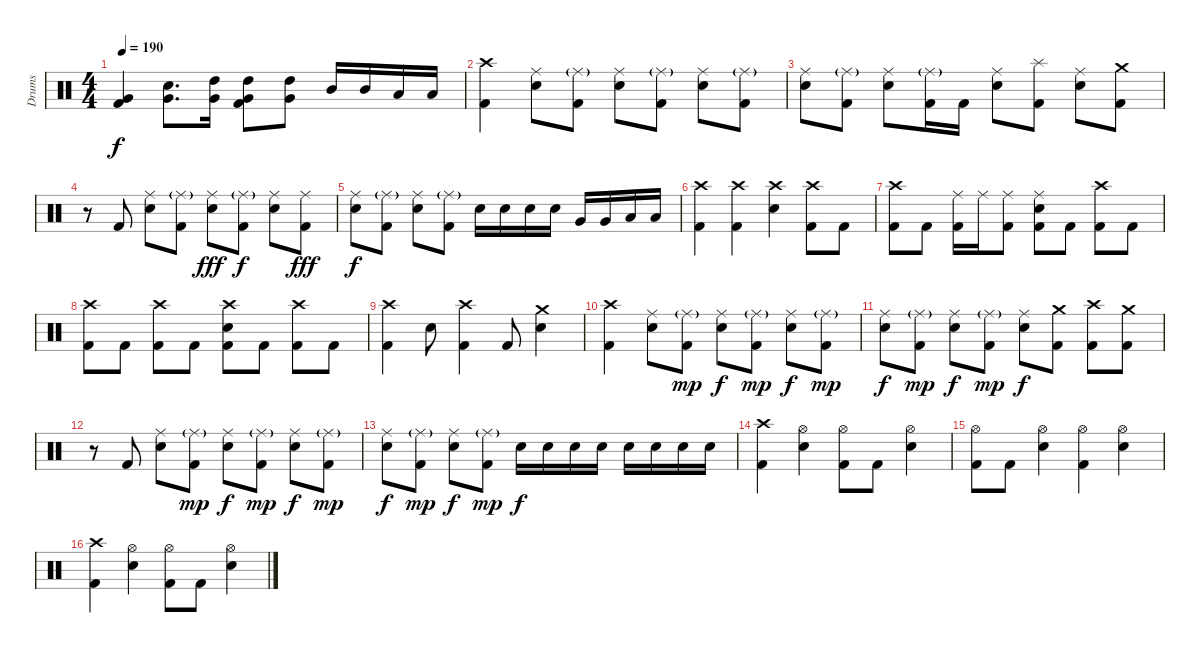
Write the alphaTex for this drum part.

\track ("Drums" "Drums") {instrument percussion}
\staff {score}
\articulation defaults
\ts (4 4)
\tempo 190
\clef neutral
\ks c
("Very Low Tom (hit)" "Kick (hit) 2").4{dy f} ("Electric Snare (hit)" "Very Low Tom (hit)").8{d} ("High Tom (hit)" "Very Low Tom (hit)").16 ("High Tom (hit)" "Very Low Tom (hit)" "Kick (hit) 2").8 ("High Tom (hit)" "Very Low Tom (hit)").8 "Mid Tom (hit)".16 "Mid Tom (hit)".16 "Low Tom (hit)".16 "Low Tom (hit)".16 |
("Crash high (hit)" "Kick (hit) 2").4 ("Ride (middle)" "Electric Snare (hit)").8 ("Ride (middle)"{g} "Kick (hit) 2").8 ("Ride (middle)" "Electric Snare (hit)").8 ("Ride (middle)"{g} "Kick (hit) 2").8 ("Ride (middle)" "Electric Snare (hit)").8 ("Ride (middle)"{g} "Kick (hit) 2").8 |
("Ride (middle)" "Electric Snare (hit)").8 ("Ride (middle)"{g} "Kick (hit) 2").8 ("Ride (middle)" "Electric Snare (hit)").8 ("Ride (middle)"{g} "Kick (hit) 2").16 "Kick (hit) 2".16 ("Ride (middle)" "Electric Snare (hit)").8 ("Splash (hit)" "Kick (hit) 2").8 ("Ride (middle)" "Electric Snare (hit)").8 ("Crash medium (hit)" "Kick (hit) 2").8 |
r.8 "Kick (hit) 2".8 ("Ride (middle)" "Electric Snare (hit)").8 ("Ride (middle)"{g} "Kick (hit) 2").8 ("Ride (middle)" "Electric Snare (hit)").8{dy fff} ("Ride (middle)"{g} "Kick (hit) 2").8{dy f} ("Ride (middle)" "Electric Snare (hit)").8 ("Ride (middle)" "Kick (hit) 2").8{dy fff} |
("Ride (middle)" "Electric Snare (hit)").8{dy f} ("Ride (middle)"{g} "Kick (hit) 2").8 ("Ride (middle)" "Electric Snare (hit)").8 ("Ride (middle)"{g} "Kick (hit) 2").8 "Electric Snare (hit)".16 "Electric Snare (hit)".16 "Electric Snare (hit)".16 "Electric Snare (hit)".16 "Very Low Tom (hit)".16 "Very Low Tom (hit)".16 "Low Floor Tom (hit)".16 "Low Floor Tom (hit)".16 |
("Crash high (hit)" "Kick (hit) 2").4 ("Crash high (hit)" "Kick (hit) 2").4 ("Crash high (hit)" "Electric Snare (hit)").4 ("Crash high (hit)" "Kick (hit) 2").8 "Kick (hit) 2".8 |
("Crash high (hit)" "Kick (hit) 2").8 "Kick (hit) 2".8 ("Ride (middle)" "Kick (hit) 2").16 "Ride (middle)".16 ("Ride (middle)" "Kick (hit) 2").8 ("Ride (middle)" "Electric Snare (hit)" "Kick (hit) 2").8 "Kick (hit) 2".8 ("Crash high (hit)" "Kick (hit) 2").8 "Kick (hit) 2".8 |
("Crash high (hit)" "Kick (hit) 2").8 "Kick (hit) 2".8 ("Crash high (hit)" "Kick (hit) 2").8 "Kick (hit) 2".8 ("Crash high (hit)" "Electric Snare (hit)" "Kick (hit) 2").8 "Kick (hit) 2".8 ("Crash high (hit)" "Kick (hit) 2").8 "Kick (hit) 2".8 |
("Crash high (hit)" "Kick (hit) 2").4 "Electric Snare (hit)".8 ("Crash high (hit)" "Kick (hit) 2").4 "Kick (hit) 2".8 ("Crash medium (hit)" "Electric Snare (hit)").4 |
("Crash high (hit)" "Kick (hit) 2").4 ("Ride (middle)" "Electric Snare (hit)").8 ("Ride (middle)"{g} "Kick (hit) 2").8{dy mp} ("Ride (middle)" "Electric Snare (hit)").8{dy f} ("Ride (middle)"{g} "Kick (hit) 2").8{dy mp} ("Ride (middle)" "Electric Snare (hit)").8{dy f} ("Ride (middle)"{g} "Kick (hit) 2").8{dy mp} |
("Ride (middle)" "Electric Snare (hit)").8{dy f} ("Ride (middle)"{g} "Kick (hit) 2").8{dy mp} ("Ride (middle)" "Electric Snare (hit)").8{dy f} ("Ride (middle)"{g} "Kick (hit) 2").8{dy mp} ("Ride (middle)" "Electric Snare (hit)").8{dy f} ("Crash medium (hit)" "Kick (hit) 2").8 ("Crash high (hit)" "Kick (hit) 2").8 ("Crash medium (hit)" "Kick (hit) 2").8 |
r.8 "Kick (hit) 2".8 ("Ride (middle)" "Electric Snare (hit)").8 ("Ride (middle)"{g} "Kick (hit) 2").8{dy mp} ("Ride (middle)" "Electric Snare (hit)").8{dy f} ("Ride (middle)"{g} "Kick (hit) 2").8{dy mp} ("Ride (middle)" "Electric Snare (hit)").8{dy f} ("Ride (middle)"{g} "Kick (hit) 2").8{dy mp} |
("Ride (middle)" "Electric Snare (hit)").8{dy f} ("Ride (middle)"{g} "Kick (hit) 2").8{dy mp} ("Ride (middle)" "Electric Snare (hit)").8{dy f} ("Ride (middle)"{g} "Kick (hit) 2").8{dy mp} "Electric Snare (hit)".16{dy f} "Electric Snare (hit)".16 "Electric Snare (hit)".16 "Electric Snare (hit)".16 "Electric Snare (hit)".16 "Electric Snare (hit)".16 "Electric Snare (hit)".16 "Electric Snare (hit)".16 |
("Crash high (hit)" "Kick (hit) 2").4 ("Hi-Hat (open)" "Electric Snare (hit)").4 ("Hi-Hat (open)" "Kick (hit) 2").8 "Kick (hit) 2".8 ("Hi-Hat (open)" "Electric Snare (hit)").4 |
("Hi-Hat (open)" "Kick (hit) 2").8 "Kick (hit) 2".8 ("Hi-Hat (open)" "Electric Snare (hit)").4 ("Hi-Hat (open)" "Kick (hit) 2").4 ("Hi-Hat (open)" "Electric Snare (hit)").4 |
("Crash high (hit)" "Kick (hit) 2").4 ("Hi-Hat (open)" "Electric Snare (hit)").4 ("Hi-Hat (open)" "Kick (hit) 2").8 "Kick (hit) 2".8 ("Hi-Hat (open)" "Electric Snare (hit)").4
